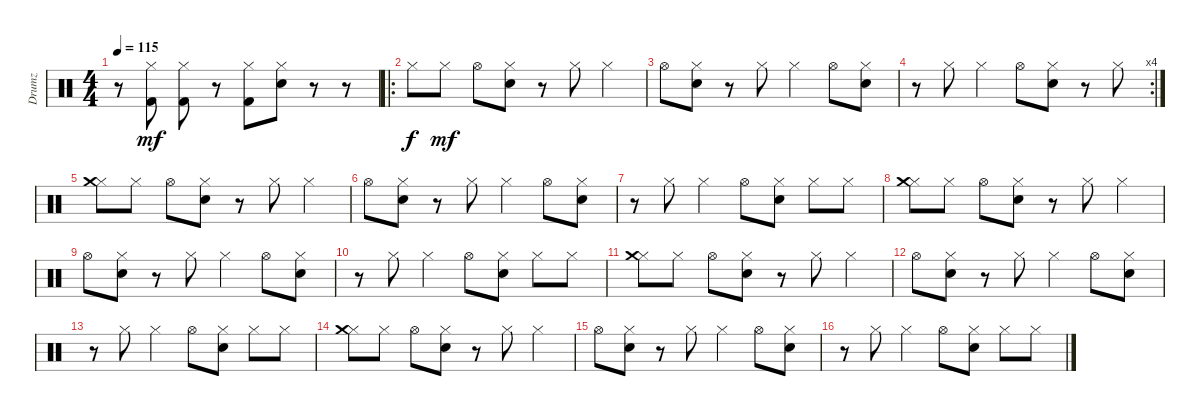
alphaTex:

\track ("Drumz" "Drumz") {instrument percussion}
\staff
\articulation defaults
\ts (4 4)
\tempo 115
\clef neutral
\ks c
r.8{dy mf} ("Hi-Hat (closed)" "Kick (hit) 2").8 ("Hi-Hat (closed)" "Kick (hit) 2").8 r.8 ("Hi-Hat (closed)" "Kick (hit) 2").8 ("Hi-Hat (closed)" "Snare (hit) 2").8 r.8 r.8 |
\ro "Hi-Hat (closed)".8{dy f} "Hi-Hat (closed)".8{dy mf} "Hi-Hat (open)".8
("Hi-Hat (closed)" "Snare (hit) 2").8 r.8 "Hi-Hat (closed)".8 "Hi-Hat (closed)".4 |
"Hi-Hat (open)".8 ("Hi-Hat (closed)" "Snare (hit) 2").8 r.8 "Hi-Hat (closed)".8 "Hi-Hat (closed)".4 "Hi-Hat (open)".8 ("Hi-Hat (closed)" "Snare (hit) 2").8 |
\rc 4
r.8 "Hi-Hat (closed)".8 "Hi-Hat (closed)".4 "Hi-Hat (open)".8 ("Hi-Hat (closed)" "Snare (hit) 2").8 r.8 "Hi-Hat (closed)".8 |
("Hi-Hat (closed)" "Crash medium (hit)").8 "Hi-Hat (closed)".8 "Hi-Hat (open)".8 ("Hi-Hat (closed)" "Snare (hit) 2").8 r.8 "Hi-Hat (closed)".8 "Hi-Hat (closed)".4 |
"Hi-Hat (open)".8 ("Hi-Hat (closed)" "Snare (hit) 2").8 r.8 "Hi-Hat (closed)".8 "Hi-Hat (closed)".4 "Hi-Hat (open)".8 ("Hi-Hat (closed)" "Snare (hit) 2").8 |
r.8 "Hi-Hat (closed)".8 "Hi-Hat (closed)".4 "Hi-Hat (open)".8 ("Hi-Hat (closed)" "Snare (hit) 2").8 "Hi-Hat (closed)".8 "Hi-Hat (closed)".8 |
("Hi-Hat (closed)" "Crash medium (hit)").8 "Hi-Hat (closed)".8 "Hi-Hat (open)".8 ("Hi-Hat (closed)" "Snare (hit) 2").8 r.8 "Hi-Hat (closed)".8 "Hi-Hat (closed)".4 |
"Hi-Hat (open)".8 ("Hi-Hat (closed)" "Snare (hit) 2").8 r.8 "Hi-Hat (closed)".8 "Hi-Hat (closed)".4 "Hi-Hat (open)".8 ("Hi-Hat (closed)" "Snare (hit) 2").8 |
r.8 "Hi-Hat (closed)".8 "Hi-Hat (closed)".4 "Hi-Hat (open)".8 ("Hi-Hat (closed)" "Snare (hit) 2").8 "Hi-Hat (closed)".8 "Hi-Hat (closed)".8 |
("Hi-Hat (closed)" "Crash medium (hit)").8 "Hi-Hat (closed)".8 "Hi-Hat (open)".8 ("Hi-Hat (closed)" "Snare (hit) 2").8 r.8 "Hi-Hat (closed)".8 "Hi-Hat (closed)".4 |
"Hi-Hat (open)".8 ("Hi-Hat (closed)" "Snare (hit) 2").8 r.8 "Hi-Hat (closed)".8 "Hi-Hat (closed)".4 "Hi-Hat (open)".8 ("Hi-Hat (closed)" "Snare (hit) 2").8 |
r.8 "Hi-Hat (closed)".8 "Hi-Hat (closed)".4 "Hi-Hat (open)".8 ("Hi-Hat (closed)" "Snare (hit) 2").8 "Hi-Hat (closed)".8 "Hi-Hat (closed)".8 |
("Hi-Hat (closed)" "Crash medium (hit)").8 "Hi-Hat (closed)".8 "Hi-Hat (open)".8 ("Hi-Hat (closed)" "Snare (hit) 2").8 r.8 "Hi-Hat (closed)".8 "Hi-Hat (closed)".4 |
"Hi-Hat (open)".8 ("Hi-Hat (closed)" "Snare (hit) 2").8 r.8 "Hi-Hat (closed)".8 "Hi-Hat (closed)".4 "Hi-Hat (open)".8 ("Hi-Hat (closed)" "Snare (hit) 2").8 |
r.8 "Hi-Hat (closed)".8 "Hi-Hat (closed)".4 "Hi-Hat (open)".8 ("Hi-Hat (closed)" "Snare (hit) 2").8 "Hi-Hat (closed)".8 "Hi-Hat (closed)".8
